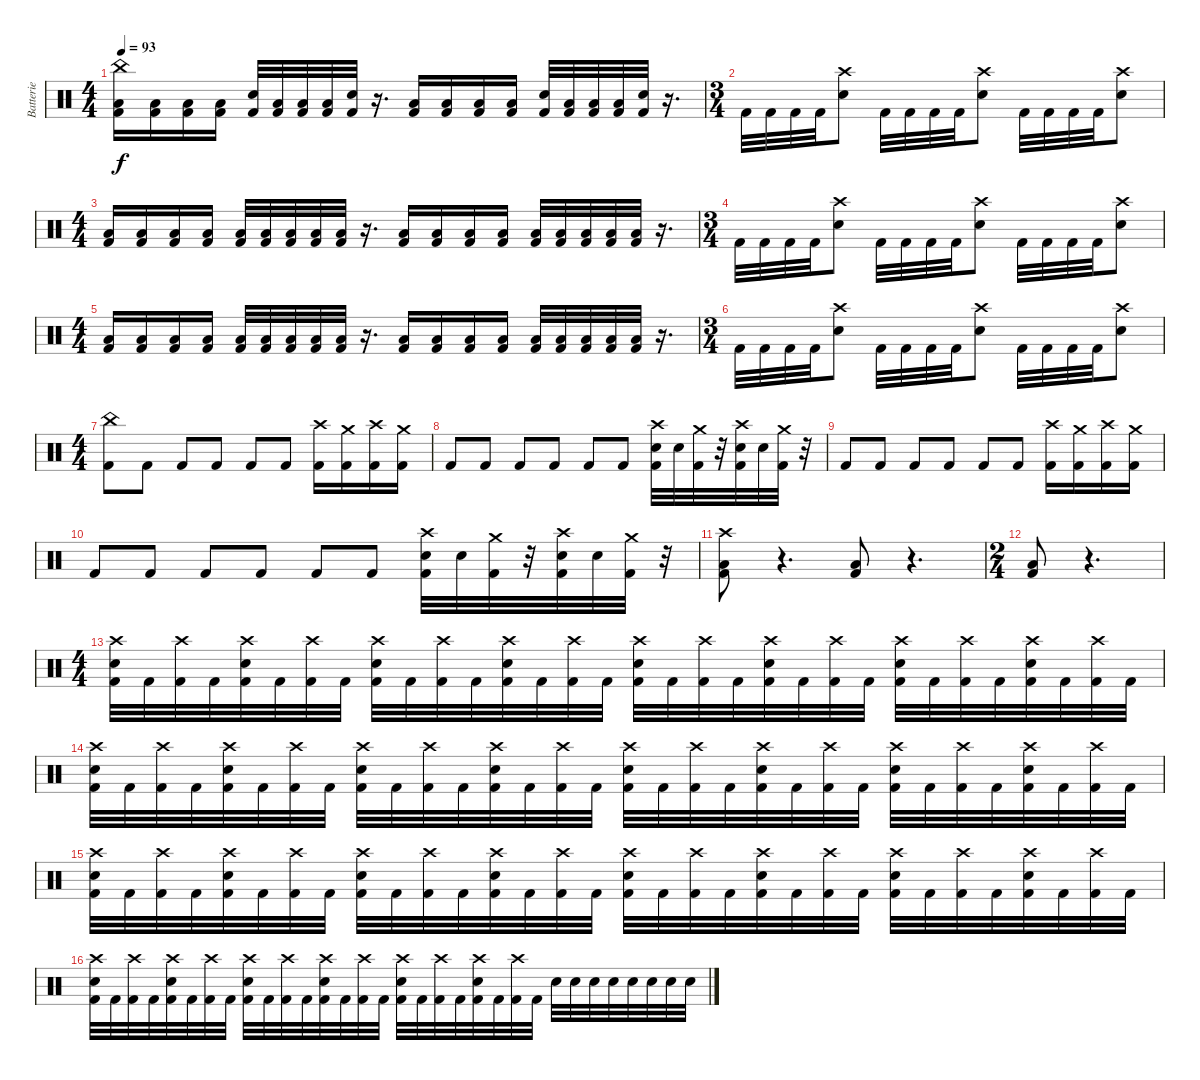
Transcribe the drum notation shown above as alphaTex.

\track ("Batterie" "Batterie") {instrument percussion}
\staff {score}
\articulation defaults
\ts (4 4)
\tempo 93
\clef neutral
\ks c
("China (hit)" "Low Tom (hit)" "Kick (hit) 2").16{dy f} ("Low Tom (hit)" "Kick (hit) 2").16 ("Low Tom (hit)" "Kick (hit) 2").16 ("Low Tom (hit)" "Kick (hit) 2").16 ("Electric Snare (hit)" "Kick (hit) 2").32 ("Low Tom (hit)" "Kick (hit) 2").32 ("Low Tom (hit)" "Kick (hit) 2").32 ("Low Tom (hit)" "Kick (hit) 2").32 ("Electric Snare (hit)" "Kick (hit) 2").32 r.16{d} ("Low Tom (hit)" "Kick (hit) 2").16 ("Low Tom (hit)" "Kick (hit) 2").16 ("Low Tom (hit)" "Kick (hit) 2").16 ("Low Tom (hit)" "Kick (hit) 2").16 ("Electric Snare (hit)" "Kick (hit) 2").32 ("Low Tom (hit)" "Kick (hit) 2").32 ("Low Tom (hit)" "Kick (hit) 2").32 ("Low Tom (hit)" "Kick (hit) 2").32 ("Electric Snare (hit)" "Kick (hit) 2").32 r.16{d} |
\ts (3 4)
"Kick (hit) 2".32 "Kick (hit) 2".32 "Kick (hit) 2".32 "Kick (hit) 2".32 ("Crash high (hit)" "Electric Snare (hit)").8 "Kick (hit) 2".32 "Kick (hit) 2".32 "Kick (hit) 2".32 "Kick (hit) 2".32 ("Crash high (hit)" "Electric Snare (hit)").8 "Kick (hit) 2".32 "Kick (hit) 2".32 "Kick (hit) 2".32 "Kick (hit) 2".32 ("Crash high (hit)" "Electric Snare (hit)").8 |
\ts (4 4)
("Low Tom (hit)" "Kick (hit) 2").16 ("Low Tom (hit)" "Kick (hit) 2").16 ("Low Tom (hit)" "Kick (hit) 2").16 ("Low Tom (hit)" "Kick (hit) 2").16 ("Low Tom (hit)" "Kick (hit) 2").32 ("Low Tom (hit)" "Kick (hit) 2").32 ("Low Tom (hit)" "Kick (hit) 2").32 ("Low Tom (hit)" "Kick (hit) 2").32 ("Low Tom (hit)" "Kick (hit) 2").32 r.16{d} ("Low Tom (hit)" "Kick (hit) 2").16 ("Low Tom (hit)" "Kick (hit) 2").16 ("Low Tom (hit)" "Kick (hit) 2").16 ("Low Tom (hit)" "Kick (hit) 2").16 ("Low Tom (hit)" "Kick (hit) 2").32 ("Low Tom (hit)" "Kick (hit) 2").32 ("Low Tom (hit)" "Kick (hit) 2").32 ("Low Tom (hit)" "Kick (hit) 2").32 ("Low Tom (hit)" "Kick (hit) 2").32 r.16{d} |
\ts (3 4)
"Kick (hit) 2".32 "Kick (hit) 2".32 "Kick (hit) 2".32 "Kick (hit) 2".32 ("Crash high (hit)" "Electric Snare (hit)").8 "Kick (hit) 2".32 "Kick (hit) 2".32 "Kick (hit) 2".32 "Kick (hit) 2".32 ("Crash high (hit)" "Electric Snare (hit)").8 "Kick (hit) 2".32 "Kick (hit) 2".32 "Kick (hit) 2".32 "Kick (hit) 2".32 ("Crash high (hit)" "Electric Snare (hit)").8 |
\ts (4 4)
("Low Tom (hit)" "Kick (hit) 2").16 ("Low Tom (hit)" "Kick (hit) 2").16 ("Low Tom (hit)" "Kick (hit) 2").16 ("Low Tom (hit)" "Kick (hit) 2").16 ("Low Tom (hit)" "Kick (hit) 2").32 ("Low Tom (hit)" "Kick (hit) 2").32 ("Low Tom (hit)" "Kick (hit) 2").32 ("Low Tom (hit)" "Kick (hit) 2").32 ("Low Tom (hit)" "Kick (hit) 2").32 r.16{d} ("Low Tom (hit)" "Kick (hit) 2").16 ("Low Tom (hit)" "Kick (hit) 2").16 ("Low Tom (hit)" "Kick (hit) 2").16 ("Low Tom (hit)" "Kick (hit) 2").16 ("Low Tom (hit)" "Kick (hit) 2").32 ("Low Tom (hit)" "Kick (hit) 2").32 ("Low Tom (hit)" "Kick (hit) 2").32 ("Low Tom (hit)" "Kick (hit) 2").32 ("Low Tom (hit)" "Kick (hit) 2").32 r.16{d} |
\ts (3 4)
"Kick (hit) 2".32 "Kick (hit) 2".32 "Kick (hit) 2".32 "Kick (hit) 2".32 ("Crash high (hit)" "Electric Snare (hit)").8 "Kick (hit) 2".32 "Kick (hit) 2".32 "Kick (hit) 2".32 "Kick (hit) 2".32 ("Crash high (hit)" "Electric Snare (hit)").8 "Kick (hit) 2".32 "Kick (hit) 2".32 "Kick (hit) 2".32 "Kick (hit) 2".32 ("Crash high (hit)" "Electric Snare (hit)").8 |
\ts (4 4)
\section ("" "")
("China (hit)" "Kick (hit) 2").8 "Kick (hit) 2".8 "Kick (hit) 2".8 "Kick (hit) 2".8 "Kick (hit) 2".8 "Kick (hit) 2".8 ("Crash high (hit)" "Kick (hit) 2").16 ("Crash medium (hit)" "Kick (hit) 2").16 ("Crash high (hit)" "Kick (hit) 2").16 ("Crash medium (hit)" "Kick (hit) 2").16 |
"Kick (hit) 2".8 "Kick (hit) 2".8 "Kick (hit) 2".8 "Kick (hit) 2".8 "Kick (hit) 2".8 "Kick (hit) 2".8 ("Crash high (hit)" "Electric Snare (hit)" "Kick (hit) 2").32 "Electric Snare (hit)".32 ("Crash medium (hit)" "Kick (hit) 2").32 r.32 ("Crash high (hit)" "Electric Snare (hit)" "Kick (hit) 2").32 "Electric Snare (hit)".32 ("Crash medium (hit)" "Kick (hit) 2").32 r.32 |
"Kick (hit) 2".8 "Kick (hit) 2".8 "Kick (hit) 2".8 "Kick (hit) 2".8 "Kick (hit) 2".8 "Kick (hit) 2".8 ("Crash high (hit)" "Kick (hit) 2").16 ("Crash medium (hit)" "Kick (hit) 2").16 ("Crash high (hit)" "Kick (hit) 2").16 ("Crash medium (hit)" "Kick (hit) 2").16 |
"Kick (hit) 2".8 "Kick (hit) 2".8 "Kick (hit) 2".8 "Kick (hit) 2".8 "Kick (hit) 2".8 "Kick (hit) 2".8 ("Crash high (hit)" "Electric Snare (hit)" "Kick (hit) 2").32 "Electric Snare (hit)".32 ("Crash medium (hit)" "Kick (hit) 2").32 r.32 ("Crash high (hit)" "Electric Snare (hit)" "Kick (hit) 2").32 "Electric Snare (hit)".32 ("Crash medium (hit)" "Kick (hit) 2").32 r.32 |
\section ("" "")
("Crash high (hit)" "Low Tom (hit)" "Kick (hit) 2").8 r.4{d} ("Low Tom (hit)" "Kick (hit) 2").8 r.4{d} |
\ts (2 4)
("Low Tom (hit)" "Kick (hit) 2").8 r.4{d} |
\ts (4 4)
\section ("" "")
("Crash high (hit)" "Electric Snare (hit)" "Kick (hit) 2").32 "Kick (hit) 2".32 ("Crash high (hit)" "Kick (hit) 2").32 "Kick (hit) 2".32 ("Crash high (hit)" "Electric Snare (hit)" "Kick (hit) 2").32 "Kick (hit) 2".32 ("Crash high (hit)" "Kick (hit) 2").32 "Kick (hit) 2".32 ("Crash high (hit)" "Electric Snare (hit)" "Kick (hit) 2").32 "Kick (hit) 2".32 ("Crash high (hit)" "Kick (hit) 2").32 "Kick (hit) 2".32 ("Crash high (hit)" "Electric Snare (hit)" "Kick (hit) 2").32 "Kick (hit) 2".32 ("Crash high (hit)" "Kick (hit) 2").32 "Kick (hit) 2".32 ("Crash high (hit)" "Electric Snare (hit)" "Kick (hit) 2").32 "Kick (hit) 2".32 ("Crash high (hit)" "Kick (hit) 2").32 "Kick (hit) 2".32 ("Crash high (hit)" "Electric Snare (hit)" "Kick (hit) 2").32 "Kick (hit) 2".32 ("Crash high (hit)" "Kick (hit) 2").32 "Kick (hit) 2".32 ("Crash high (hit)" "Electric Snare (hit)" "Kick (hit) 2").32 "Kick (hit) 2".32 ("Crash high (hit)" "Kick (hit) 2").32 "Kick (hit) 2".32 ("Crash high (hit)" "Electric Snare (hit)" "Kick (hit) 2").32 "Kick (hit) 2".32 ("Crash high (hit)" "Kick (hit) 2").32 "Kick (hit) 2".32 |
("Crash high (hit)" "Electric Snare (hit)" "Kick (hit) 2").32 "Kick (hit) 2".32 ("Crash high (hit)" "Kick (hit) 2").32 "Kick (hit) 2".32 ("Crash high (hit)" "Electric Snare (hit)" "Kick (hit) 2").32 "Kick (hit) 2".32 ("Crash high (hit)" "Kick (hit) 2").32 "Kick (hit) 2".32 ("Crash high (hit)" "Electric Snare (hit)" "Kick (hit) 2").32 "Kick (hit) 2".32 ("Crash high (hit)" "Kick (hit) 2").32 "Kick (hit) 2".32 ("Crash high (hit)" "Electric Snare (hit)" "Kick (hit) 2").32 "Kick (hit) 2".32 ("Crash high (hit)" "Kick (hit) 2").32 "Kick (hit) 2".32 ("Crash high (hit)" "Electric Snare (hit)" "Kick (hit) 2").32 "Kick (hit) 2".32 ("Crash high (hit)" "Kick (hit) 2").32 "Kick (hit) 2".32 ("Crash high (hit)" "Electric Snare (hit)" "Kick (hit) 2").32 "Kick (hit) 2".32 ("Crash high (hit)" "Kick (hit) 2").32 "Kick (hit) 2".32 ("Crash high (hit)" "Electric Snare (hit)" "Kick (hit) 2").32 "Kick (hit) 2".32 ("Crash high (hit)" "Kick (hit) 2").32 "Kick (hit) 2".32 ("Crash high (hit)" "Electric Snare (hit)" "Kick (hit) 2").32 "Kick (hit) 2".32 ("Crash high (hit)" "Kick (hit) 2").32 "Kick (hit) 2".32 |
("Crash high (hit)" "Electric Snare (hit)" "Kick (hit) 2").32 "Kick (hit) 2".32 ("Crash high (hit)" "Kick (hit) 2").32 "Kick (hit) 2".32 ("Crash high (hit)" "Electric Snare (hit)" "Kick (hit) 2").32 "Kick (hit) 2".32 ("Crash high (hit)" "Kick (hit) 2").32 "Kick (hit) 2".32 ("Crash high (hit)" "Electric Snare (hit)" "Kick (hit) 2").32 "Kick (hit) 2".32 ("Crash high (hit)" "Kick (hit) 2").32 "Kick (hit) 2".32 ("Crash high (hit)" "Electric Snare (hit)" "Kick (hit) 2").32 "Kick (hit) 2".32 ("Crash high (hit)" "Kick (hit) 2").32 "Kick (hit) 2".32 ("Crash high (hit)" "Electric Snare (hit)" "Kick (hit) 2").32 "Kick (hit) 2".32 ("Crash high (hit)" "Kick (hit) 2").32 "Kick (hit) 2".32 ("Crash high (hit)" "Electric Snare (hit)" "Kick (hit) 2").32 "Kick (hit) 2".32 ("Crash high (hit)" "Kick (hit) 2").32 "Kick (hit) 2".32 ("Crash high (hit)" "Electric Snare (hit)" "Kick (hit) 2").32 "Kick (hit) 2".32 ("Crash high (hit)" "Kick (hit) 2").32 "Kick (hit) 2".32 ("Crash high (hit)" "Electric Snare (hit)" "Kick (hit) 2").32 "Kick (hit) 2".32 ("Crash high (hit)" "Kick (hit) 2").32 "Kick (hit) 2".32 |
("Crash high (hit)" "Electric Snare (hit)" "Kick (hit) 2").32 "Kick (hit) 2".32 ("Crash high (hit)" "Kick (hit) 2").32 "Kick (hit) 2".32 ("Crash high (hit)" "Electric Snare (hit)" "Kick (hit) 2").32 "Kick (hit) 2".32 ("Crash high (hit)" "Kick (hit) 2").32 "Kick (hit) 2".32 ("Crash high (hit)" "Electric Snare (hit)" "Kick (hit) 2").32 "Kick (hit) 2".32 ("Crash high (hit)" "Kick (hit) 2").32 "Kick (hit) 2".32 ("Crash high (hit)" "Electric Snare (hit)" "Kick (hit) 2").32 "Kick (hit) 2".32 ("Crash high (hit)" "Kick (hit) 2").32 "Kick (hit) 2".32 ("Crash high (hit)" "Electric Snare (hit)" "Kick (hit) 2").32 "Kick (hit) 2".32 ("Crash high (hit)" "Kick (hit) 2").32 "Kick (hit) 2".32 ("Crash high (hit)" "Electric Snare (hit)" "Kick (hit) 2").32 "Kick (hit) 2".32 ("Crash high (hit)" "Kick (hit) 2").32 "Kick (hit) 2".32 "Electric Snare (hit)".32 "Electric Snare (hit)".32 "Electric Snare (hit)".32 "Electric Snare (hit)".32 "Electric Snare (hit)".32 "Electric Snare (hit)".32 "Electric Snare (hit)".32 "Electric Snare (hit)".32
